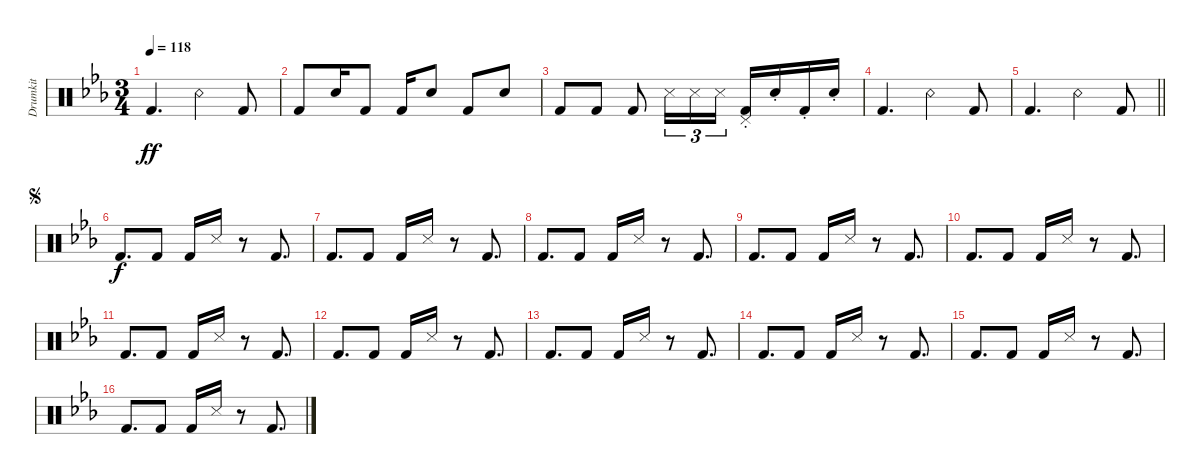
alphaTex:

\defaultSystemsLayout 4
\bracketExtendMode groupsimilarinstruments
\otherSystemsTrackNameOrientation horizontal
\track ("Drumkit" "Drumkit") {instrument percussion}
\staff {score}
\articulation defaults
\ts (3 4)
\scale
1.28555
\tempo 118
\accidentals auto
\clef neutral
\ottava regular
\simile none
\ks cminor "Kick (hit) 2"{acc forcenatural}.4{d dy ff beam Up} "Snare (rim shot)"{acc forcenatural}.4{beam Down} "Kick (hit) 2"{acc forcenatural}.8{beam Up}
|
\scale
0.714448 "Kick (hit) 2"{acc forcenatural}.8{beam Up} "Snare (hit) 2"{acc forcenatural}.16{beam Up} "Kick (hit) 2"{acc forcenatural}.8{beam Up} "Kick (hit) 2"{acc forcenatural}.16{beam Up} "Snare (hit) 2"{acc forcenatural}.8{beam Up} "Kick (hit) 2"{acc forcenatural}.8{beam Up} "Snare (hit) 2"{acc forcenatural}.8{beam Up} |
\scale
1.03706 "Kick (hit) 2"{acc forcenatural}.8{beam Up} "Kick (hit) 2"{acc forcenatural}.8{beam Up} "Kick (hit) 2"{acc forcenatural}.8{beam Up} "Snare (side stick) 3"{acc forcenatural}.16{tu (3 2) beam Down} "Snare (side stick) 3"{acc forcenatural}.16{tu (3 2) beam Down} "Snare (side stick) 3"{acc forcenatural}.16{tu (3 2) beam Down} ("Pedal Hi-Hat (hit)"{st acc forcenatural} "Kick (hit) 2"{st acc forcenatural}).16{beam Up} "Snare (hit) 2"{st acc forcenatural}.16{beam Up} "Kick (hit) 2"{st acc forcenatural}.16{beam Up} "Snare (hit) 2"{st acc forcenatural}.16{beam Up} |
\scale
0.962939 "Kick (hit) 2"{acc forcenatural}.4{d beam Up} "Snare (rim shot)"{acc forcenatural}.4{beam Down} "Kick (hit) 2"{acc forcenatural}.8{beam Up} |
\scale
1.2287
\barLineRight lightlight "Kick (hit) 2"{acc forcenatural}.4{d beam Up} "Snare (rim shot)"{acc forcenatural}.4{beam Down} "Kick (hit) 2"{acc forcenatural}.8{beam Up}
|
\scale
0.771299
\jump segno "Kick (hit) 2"{acc forcenatural}.8{d dy f beam Up} "Kick (hit) 2"{acc forcenatural}.8{beam Up} "Kick (hit) 2"{acc forcenatural}.16{beam Up} "Snare (side stick) 3"{acc forcenatural}.16{beam Up}
r.8{beam Up} "Kick (hit) 2"{acc forcenatural}.8{d beam Up} |
\scale
1.13801 "Kick (hit) 2"{acc forcenatural}.8{d beam Up} "Kick (hit) 2"{acc forcenatural}.8{beam Up} "Kick (hit) 2"{acc forcenatural}.16{beam Up} "Snare (side stick) 3"{acc forcenatural}.16{beam Up} r.8{beam Up} "Kick (hit) 2"{acc forcenatural}.8{d beam Up} |
\scale
0.861985 "Kick (hit) 2"{acc forcenatural}.8{d beam Up} "Kick (hit) 2"{acc forcenatural}.8{beam Up} "Kick (hit) 2"{acc forcenatural}.16{beam Up} "Snare (side stick) 3"{acc forcenatural}.16{beam Up} r.8{beam Up} "Kick (hit) 2"{acc forcenatural}.8{d beam Up} |
\scale
1.06668 "Kick (hit) 2"{acc forcenatural}.8{d beam Up} "Kick (hit) 2"{acc forcenatural}.8{beam Up} "Kick (hit) 2"{acc forcenatural}.16{beam Up} "Snare (side stick) 3"{acc forcenatural}.16{beam Up} r.8{beam Up} "Kick (hit) 2"{acc forcenatural}.8{d beam Up} |
\scale
0.933325 "Kick (hit) 2"{acc forcenatural}.8{d beam Up} "Kick (hit) 2"{acc forcenatural}.8{beam Up} "Kick (hit) 2"{acc forcenatural}.16{beam Up} "Snare (side stick) 3"{acc forcenatural}.16{beam Up} r.8{beam Up} "Kick (hit) 2"{acc forcenatural}.8{d beam Up} |
\scale
1.05915 "Kick (hit) 2"{acc forcenatural}.8{d beam Up} "Kick (hit) 2"{acc forcenatural}.8{beam Up} "Kick (hit) 2"{acc forcenatural}.16{beam Up} "Snare (side stick) 3"{acc forcenatural}.16{beam Up} r.8{beam Up} "Kick (hit) 2"{acc forcenatural}.8{d beam Up} |
\scale
0.940854 "Kick (hit) 2"{acc forcenatural}.8{d beam Up} "Kick (hit) 2"{acc forcenatural}.8{beam Up} "Kick (hit) 2"{acc forcenatural}.16{beam Up} "Snare (side stick) 3"{acc forcenatural}.16{beam Up} r.8{beam Up} "Kick (hit) 2"{acc forcenatural}.8{d beam Up} |
\scale
1.02901 "Kick (hit) 2"{acc forcenatural}.8{d beam Up} "Kick (hit) 2"{acc forcenatural}.8{beam Up} "Kick (hit) 2"{acc forcenatural}.16{beam Up} "Snare (side stick) 3"{acc forcenatural}.16{beam Up} r.8{beam Up} "Kick (hit) 2"{acc forcenatural}.8{d beam Up} |
\scale
0.97099 "Kick (hit) 2"{acc forcenatural}.8{d beam Up} "Kick (hit) 2"{acc forcenatural}.8{beam Up} "Kick (hit) 2"{acc forcenatural}.16{beam Up} "Snare (side stick) 3"{acc forcenatural}.16{beam Up} r.8{beam Up} "Kick (hit) 2"{acc forcenatural}.8{d beam Up} |
\scale
0.239133 "Kick (hit) 2"{acc forcenatural}.8{d beam Up} "Kick (hit) 2"{acc forcenatural}.8{beam Up} "Kick (hit) 2"{acc forcenatural}.16{beam Up} "Snare (side stick) 3"{acc forcenatural}.16{beam Up} r.8{beam Up} "Kick (hit) 2"{acc forcenatural}.8{d beam Up} |
\scale
0.220518 "Kick (hit) 2"{acc forcenatural}.8{d beam Up} "Kick (hit) 2"{acc forcenatural}.8{beam Up} "Kick (hit) 2"{acc forcenatural}.16{beam Up} "Snare (side stick) 3"{acc forcenatural}.16{beam Up} r.8{beam Up} "Kick (hit) 2"{acc forcenatural}.8{d beam Up}
